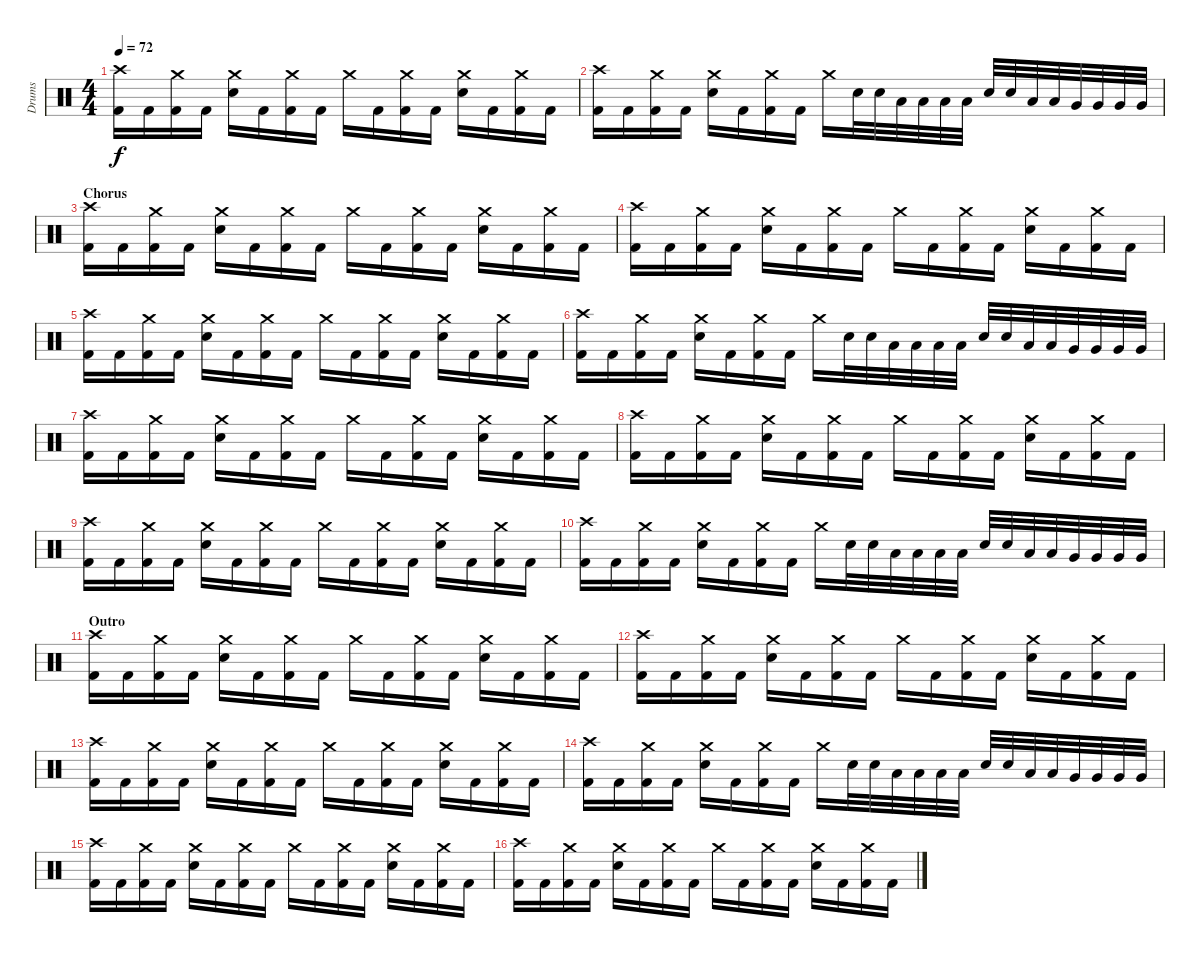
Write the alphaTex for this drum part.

\track ("Drums" "Drums") {instrument percussion}
\staff {score}
\articulation defaults
\ts (4 4)
\tempo 72
\clef neutral
\ks c
("Crash high (hit)" "Kick (hit) 2").16{dy f} "Kick (hit) 2".16 ("Kick (hit) 2" "Crash medium (hit)").16 "Kick (hit) 2".16 ("Snare (hit) 2" "Crash medium (hit)").16 "Kick (hit) 2".16 ("Kick (hit) 2" "Crash medium (hit)").16 "Kick (hit) 2".16 "Crash medium (hit)".16 "Kick (hit) 2".16 ("Kick (hit) 2" "Crash medium (hit)").16 "Kick (hit) 2".16 ("Snare (hit) 2" "Crash medium (hit)").16 "Kick (hit) 2".16 ("Kick (hit) 2" "Crash medium (hit)").16 "Kick (hit) 2".16 |
("Crash high (hit)" "Kick (hit) 2").16 "Kick (hit) 2".16 ("Kick (hit) 2" "Crash medium (hit)").16 "Kick (hit) 2".16 ("Snare (hit) 2" "Crash medium (hit)").16 "Kick (hit) 2".16 ("Kick (hit) 2" "Crash medium (hit)").16 "Kick (hit) 2".16 "Crash medium (hit)".16 "Snare (hit) 2".32 "Snare (hit) 2".32 "Low Tom (hit)".32 "Low Tom (hit)".32 "Low Tom (hit)".32 "Low Tom (hit)".32 "Snare (hit) 2".32 "Snare (hit) 2".32 "Low Tom (hit)".32 "Low Tom (hit)".32 "Very Low Tom (hit)".32 "Very Low Tom (hit)".32 "Very Low Tom (hit)".32 "Very Low Tom (hit)".32 |
\section ("" "Chorus")
("Crash high (hit)" "Kick (hit) 2").16 "Kick (hit) 2".16 ("Kick (hit) 2" "Crash medium (hit)").16 "Kick (hit) 2".16 ("Snare (hit) 2" "Crash medium (hit)").16 "Kick (hit) 2".16 ("Kick (hit) 2" "Crash medium (hit)").16 "Kick (hit) 2".16 "Crash medium (hit)".16 "Kick (hit) 2".16 ("Kick (hit) 2" "Crash medium (hit)").16 "Kick (hit) 2".16 ("Snare (hit) 2" "Crash medium (hit)").16 "Kick (hit) 2".16 ("Kick (hit) 2" "Crash medium (hit)").16 "Kick (hit) 2".16 |
("Crash high (hit)" "Kick (hit) 2").16 "Kick (hit) 2".16 ("Kick (hit) 2" "Crash medium (hit)").16 "Kick (hit) 2".16 ("Snare (hit) 2" "Crash medium (hit)").16 "Kick (hit) 2".16 ("Kick (hit) 2" "Crash medium (hit)").16 "Kick (hit) 2".16 "Crash medium (hit)".16 "Kick (hit) 2".16 ("Kick (hit) 2" "Crash medium (hit)").16 "Kick (hit) 2".16 ("Snare (hit) 2" "Crash medium (hit)").16 "Kick (hit) 2".16 ("Kick (hit) 2" "Crash medium (hit)").16 "Kick (hit) 2".16 |
("Crash high (hit)" "Kick (hit) 2").16 "Kick (hit) 2".16 ("Kick (hit) 2" "Crash medium (hit)").16 "Kick (hit) 2".16 ("Snare (hit) 2" "Crash medium (hit)").16 "Kick (hit) 2".16 ("Kick (hit) 2" "Crash medium (hit)").16 "Kick (hit) 2".16 "Crash medium (hit)".16 "Kick (hit) 2".16 ("Kick (hit) 2" "Crash medium (hit)").16 "Kick (hit) 2".16 ("Snare (hit) 2" "Crash medium (hit)").16 "Kick (hit) 2".16 ("Kick (hit) 2" "Crash medium (hit)").16 "Kick (hit) 2".16 |
("Crash high (hit)" "Kick (hit) 2").16 "Kick (hit) 2".16 ("Kick (hit) 2" "Crash medium (hit)").16 "Kick (hit) 2".16 ("Snare (hit) 2" "Crash medium (hit)").16 "Kick (hit) 2".16 ("Kick (hit) 2" "Crash medium (hit)").16 "Kick (hit) 2".16 "Crash medium (hit)".16 "Snare (hit) 2".32 "Snare (hit) 2".32 "Low Tom (hit)".32 "Low Tom (hit)".32 "Low Tom (hit)".32 "Low Tom (hit)".32 "Snare (hit) 2".32 "Snare (hit) 2".32 "Low Tom (hit)".32 "Low Tom (hit)".32 "Very Low Tom (hit)".32 "Very Low Tom (hit)".32 "Very Low Tom (hit)".32 "Very Low Tom (hit)".32 |
("Crash high (hit)" "Kick (hit) 2").16 "Kick (hit) 2".16 ("Kick (hit) 2" "Crash medium (hit)").16 "Kick (hit) 2".16 ("Snare (hit) 2" "Crash medium (hit)").16 "Kick (hit) 2".16 ("Kick (hit) 2" "Crash medium (hit)").16 "Kick (hit) 2".16 "Crash medium (hit)".16 "Kick (hit) 2".16 ("Kick (hit) 2" "Crash medium (hit)").16 "Kick (hit) 2".16 ("Snare (hit) 2" "Crash medium (hit)").16 "Kick (hit) 2".16 ("Kick (hit) 2" "Crash medium (hit)").16 "Kick (hit) 2".16 |
("Crash high (hit)" "Kick (hit) 2").16 "Kick (hit) 2".16 ("Kick (hit) 2" "Crash medium (hit)").16 "Kick (hit) 2".16 ("Snare (hit) 2" "Crash medium (hit)").16 "Kick (hit) 2".16 ("Kick (hit) 2" "Crash medium (hit)").16 "Kick (hit) 2".16 "Crash medium (hit)".16 "Kick (hit) 2".16 ("Kick (hit) 2" "Crash medium (hit)").16 "Kick (hit) 2".16 ("Snare (hit) 2" "Crash medium (hit)").16 "Kick (hit) 2".16 ("Kick (hit) 2" "Crash medium (hit)").16 "Kick (hit) 2".16 |
("Crash high (hit)" "Kick (hit) 2").16 "Kick (hit) 2".16 ("Kick (hit) 2" "Crash medium (hit)").16 "Kick (hit) 2".16 ("Snare (hit) 2" "Crash medium (hit)").16 "Kick (hit) 2".16 ("Kick (hit) 2" "Crash medium (hit)").16 "Kick (hit) 2".16 "Crash medium (hit)".16 "Kick (hit) 2".16 ("Kick (hit) 2" "Crash medium (hit)").16 "Kick (hit) 2".16 ("Snare (hit) 2" "Crash medium (hit)").16 "Kick (hit) 2".16 ("Kick (hit) 2" "Crash medium (hit)").16 "Kick (hit) 2".16 |
("Crash high (hit)" "Kick (hit) 2").16 "Kick (hit) 2".16 ("Kick (hit) 2" "Crash medium (hit)").16 "Kick (hit) 2".16 ("Snare (hit) 2" "Crash medium (hit)").16 "Kick (hit) 2".16 ("Kick (hit) 2" "Crash medium (hit)").16 "Kick (hit) 2".16 "Crash medium (hit)".16 "Snare (hit) 2".32 "Snare (hit) 2".32 "Low Tom (hit)".32 "Low Tom (hit)".32 "Low Tom (hit)".32 "Low Tom (hit)".32 "Snare (hit) 2".32 "Snare (hit) 2".32 "Low Tom (hit)".32 "Low Tom (hit)".32 "Very Low Tom (hit)".32 "Very Low Tom (hit)".32 "Very Low Tom (hit)".32 "Very Low Tom (hit)".32 |
\section ("" "Outro")
("Crash high (hit)" "Kick (hit) 2").16 "Kick (hit) 2".16 ("Kick (hit) 2" "Crash medium (hit)").16 "Kick (hit) 2".16 ("Snare (hit) 2" "Crash medium (hit)").16 "Kick (hit) 2".16 ("Kick (hit) 2" "Crash medium (hit)").16 "Kick (hit) 2".16 "Crash medium (hit)".16 "Kick (hit) 2".16 ("Kick (hit) 2" "Crash medium (hit)").16 "Kick (hit) 2".16 ("Snare (hit) 2" "Crash medium (hit)").16 "Kick (hit) 2".16 ("Kick (hit) 2" "Crash medium (hit)").16 "Kick (hit) 2".16 |
("Crash high (hit)" "Kick (hit) 2").16 "Kick (hit) 2".16 ("Kick (hit) 2" "Crash medium (hit)").16 "Kick (hit) 2".16 ("Snare (hit) 2" "Crash medium (hit)").16 "Kick (hit) 2".16 ("Kick (hit) 2" "Crash medium (hit)").16 "Kick (hit) 2".16 "Crash medium (hit)".16 "Kick (hit) 2".16 ("Kick (hit) 2" "Crash medium (hit)").16 "Kick (hit) 2".16 ("Snare (hit) 2" "Crash medium (hit)").16 "Kick (hit) 2".16 ("Kick (hit) 2" "Crash medium (hit)").16 "Kick (hit) 2".16 |
("Crash high (hit)" "Kick (hit) 2").16 "Kick (hit) 2".16 ("Kick (hit) 2" "Crash medium (hit)").16 "Kick (hit) 2".16 ("Snare (hit) 2" "Crash medium (hit)").16 "Kick (hit) 2".16 ("Kick (hit) 2" "Crash medium (hit)").16 "Kick (hit) 2".16 "Crash medium (hit)".16 "Kick (hit) 2".16 ("Kick (hit) 2" "Crash medium (hit)").16 "Kick (hit) 2".16 ("Snare (hit) 2" "Crash medium (hit)").16 "Kick (hit) 2".16 ("Kick (hit) 2" "Crash medium (hit)").16 "Kick (hit) 2".16 |
("Crash high (hit)" "Kick (hit) 2").16 "Kick (hit) 2".16 ("Kick (hit) 2" "Crash medium (hit)").16 "Kick (hit) 2".16 ("Snare (hit) 2" "Crash medium (hit)").16 "Kick (hit) 2".16 ("Kick (hit) 2" "Crash medium (hit)").16 "Kick (hit) 2".16 "Crash medium (hit)".16 "Snare (hit) 2".32 "Snare (hit) 2".32 "Low Tom (hit)".32 "Low Tom (hit)".32 "Low Tom (hit)".32 "Low Tom (hit)".32 "Snare (hit) 2".32 "Snare (hit) 2".32 "Low Tom (hit)".32 "Low Tom (hit)".32 "Very Low Tom (hit)".32 "Very Low Tom (hit)".32 "Very Low Tom (hit)".32 "Very Low Tom (hit)".32 |
("Crash high (hit)" "Kick (hit) 2").16 "Kick (hit) 2".16 ("Kick (hit) 2" "Crash medium (hit)").16 "Kick (hit) 2".16 ("Snare (hit) 2" "Crash medium (hit)").16 "Kick (hit) 2".16 ("Kick (hit) 2" "Crash medium (hit)").16 "Kick (hit) 2".16 "Crash medium (hit)".16 "Kick (hit) 2".16 ("Kick (hit) 2" "Crash medium (hit)").16 "Kick (hit) 2".16 ("Snare (hit) 2" "Crash medium (hit)").16 "Kick (hit) 2".16 ("Kick (hit) 2" "Crash medium (hit)").16 "Kick (hit) 2".16 |
("Crash high (hit)" "Kick (hit) 2").16{volume 10} "Kick (hit) 2".16 ("Kick (hit) 2" "Crash medium (hit)").16 "Kick (hit) 2".16 ("Snare (hit) 2" "Crash medium (hit)").16 "Kick (hit) 2".16 ("Kick (hit) 2" "Crash medium (hit)").16 "Kick (hit) 2".16 "Crash medium (hit)".16 "Kick (hit) 2".16 ("Kick (hit) 2" "Crash medium (hit)").16 "Kick (hit) 2".16 ("Snare (hit) 2" "Crash medium (hit)").16 "Kick (hit) 2".16 ("Kick (hit) 2" "Crash medium (hit)").16 "Kick (hit) 2".16
